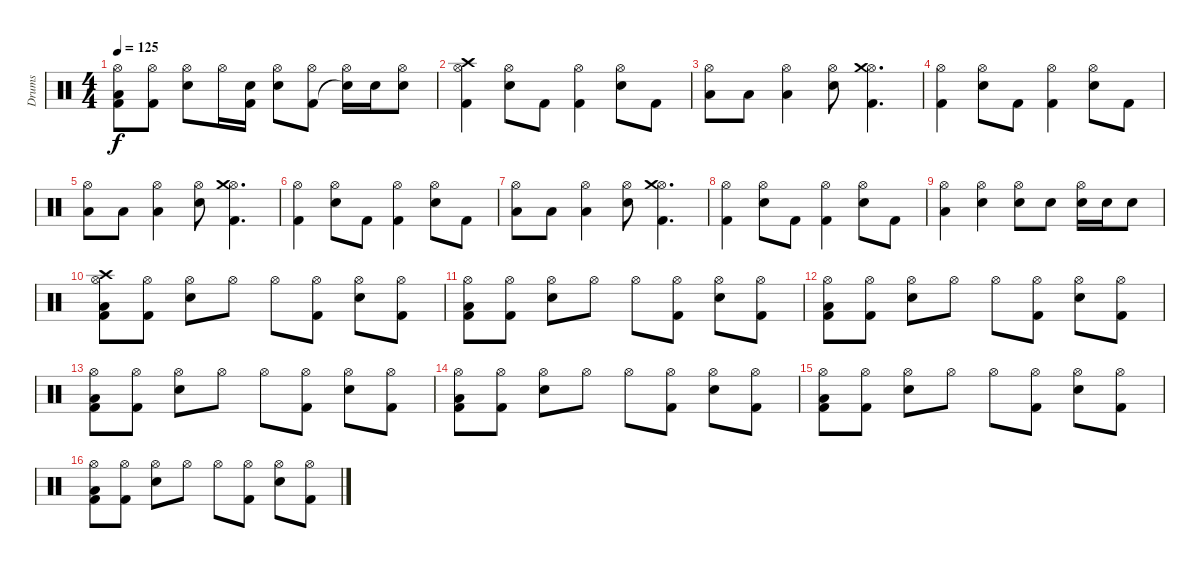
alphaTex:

\track ("Drums" "Drums") {instrument percussion}
\staff {score}
\articulation defaults
\ts (4 4)
\tempo 125
\clef neutral
\ks c
("Hi-Hat (open)" "Low Tom (hit)" "Kick (hit) 2").8{dy f} ("Hi-Hat (open)" "Kick (hit) 2").8 ("Hi-Hat (open)" "Snare (hit) 2").8 "Hi-Hat (open)".16 ("Snare (hit) 2" "Kick (hit) 2").16 ("Hi-Hat (open)" "Snare (hit) 2").8 ("Hi-Hat (open)" "Kick (hit) 2").8 ("Hi-Hat (open)" "Snare (hit)"{t}).16 "Snare (hit) 2".16 ("Hi-Hat (open)" "Snare (hit) 2").8 |
("Hi-Hat (open)" "Crash high (hit)" "Kick (hit) 2").4 ("Hi-Hat (open)" "Snare (hit) 2").8 "Kick (hit) 2".8 ("Hi-Hat (open)" "Kick (hit) 2").4 ("Hi-Hat (open)" "Snare (hit) 2").8 "Kick (hit) 2".8 |
("Hi-Hat (open)" "Low Tom (hit)").8 "Low Tom (hit)".8 ("Hi-Hat (open)" "Low Tom (hit)").4 ("Hi-Hat (open)" "Snare (hit) 2").8 ("Hi-Hat (open)" "Crash medium (hit)" "Kick (hit) 2").4{d} |
("Hi-Hat (open)" "Kick (hit) 2").4 ("Hi-Hat (open)" "Snare (hit) 2").8 "Kick (hit) 2".8 ("Hi-Hat (open)" "Kick (hit) 2").4 ("Hi-Hat (open)" "Snare (hit) 2").8 "Kick (hit) 2".8 |
("Hi-Hat (open)" "Low Tom (hit)").8 "Low Tom (hit)".8 ("Hi-Hat (open)" "Low Tom (hit)").4 ("Hi-Hat (open)" "Snare (hit) 2").8 ("Hi-Hat (open)" "Crash medium (hit)" "Kick (hit) 2").4{d} |
("Hi-Hat (open)" "Kick (hit) 2").4 ("Hi-Hat (open)" "Snare (hit) 2").8 "Kick (hit) 2".8 ("Hi-Hat (open)" "Kick (hit) 2").4 ("Hi-Hat (open)" "Snare (hit) 2").8 "Kick (hit) 2".8 |
("Hi-Hat (open)" "Low Tom (hit)").8 "Low Tom (hit)".8 ("Hi-Hat (open)" "Low Tom (hit)").4 ("Hi-Hat (open)" "Snare (hit) 2").8 ("Hi-Hat (open)" "Crash medium (hit)" "Kick (hit) 2").4{d} |
("Hi-Hat (open)" "Kick (hit) 2").4 ("Hi-Hat (open)" "Snare (hit) 2").8 "Kick (hit) 2".8 ("Hi-Hat (open)" "Kick (hit) 2").4 ("Hi-Hat (open)" "Snare (hit) 2").8 "Kick (hit) 2".8 |
("Hi-Hat (open)" "Low Tom (hit)").4 ("Hi-Hat (open)" "Snare (hit) 2").4 ("Hi-Hat (open)" "Electric Snare (hit)").8 "Snare (hit) 2".8 ("Hi-Hat (open)" "Electric Snare (hit)").16 "Electric Snare (hit)".16 "Electric Snare (hit)".8 |
("Hi-Hat (open)" "Crash high (hit)" "Low Tom (hit)" "Kick (hit) 2").8 ("Hi-Hat (open)" "Kick (hit) 2").8 ("Hi-Hat (open)" "Snare (hit) 2").8 "Hi-Hat (open)".8 "Hi-Hat (open)".8 ("Hi-Hat (open)" "Kick (hit) 2").8 ("Hi-Hat (open)" "Snare (hit) 2").8 ("Hi-Hat (open)" "Kick (hit) 2").8 |
("Hi-Hat (open)" "Low Tom (hit)" "Kick (hit) 2").8 ("Hi-Hat (open)" "Kick (hit) 2").8 ("Hi-Hat (open)" "Snare (hit) 2").8 "Hi-Hat (open)".8 "Hi-Hat (open)".8 ("Hi-Hat (open)" "Kick (hit) 2").8 ("Hi-Hat (open)" "Snare (hit) 2").8 ("Hi-Hat (open)" "Kick (hit) 2").8 |
("Hi-Hat (open)" "Low Tom (hit)" "Kick (hit) 2").8 ("Hi-Hat (open)" "Kick (hit) 2").8 ("Hi-Hat (open)" "Snare (hit) 2").8 "Hi-Hat (open)".8 "Hi-Hat (open)".8 ("Hi-Hat (open)" "Kick (hit) 2").8 ("Hi-Hat (open)" "Snare (hit) 2").8 ("Hi-Hat (open)" "Kick (hit) 2").8 |
("Hi-Hat (open)" "Low Tom (hit)" "Kick (hit) 2").8 ("Hi-Hat (open)" "Kick (hit) 2").8 ("Hi-Hat (open)" "Snare (hit) 2").8 "Hi-Hat (open)".8 "Hi-Hat (open)".8 ("Hi-Hat (open)" "Kick (hit) 2").8 ("Hi-Hat (open)" "Snare (hit) 2").8 ("Hi-Hat (open)" "Kick (hit) 2").8 |
("Hi-Hat (open)" "Low Tom (hit)" "Kick (hit) 2").8 ("Hi-Hat (open)" "Kick (hit) 2").8 ("Hi-Hat (open)" "Snare (hit) 2").8 "Hi-Hat (open)".8 "Hi-Hat (open)".8 ("Hi-Hat (open)" "Kick (hit) 2").8 ("Hi-Hat (open)" "Snare (hit) 2").8 ("Hi-Hat (open)" "Kick (hit) 2").8 |
("Hi-Hat (open)" "Low Tom (hit)" "Kick (hit) 2").8 ("Hi-Hat (open)" "Kick (hit) 2").8 ("Hi-Hat (open)" "Snare (hit) 2").8 "Hi-Hat (open)".8 "Hi-Hat (open)".8 ("Hi-Hat (open)" "Kick (hit) 2").8 ("Hi-Hat (open)" "Snare (hit) 2").8 ("Hi-Hat (open)" "Kick (hit) 2").8 |
("Hi-Hat (open)" "Low Tom (hit)" "Kick (hit) 2").8 ("Hi-Hat (open)" "Kick (hit) 2").8 ("Hi-Hat (open)" "Snare (hit) 2").8 "Hi-Hat (open)".8 "Hi-Hat (open)".8 ("Hi-Hat (open)" "Kick (hit) 2").8 ("Hi-Hat (open)" "Snare (hit) 2").8 ("Hi-Hat (open)" "Kick (hit) 2").8
